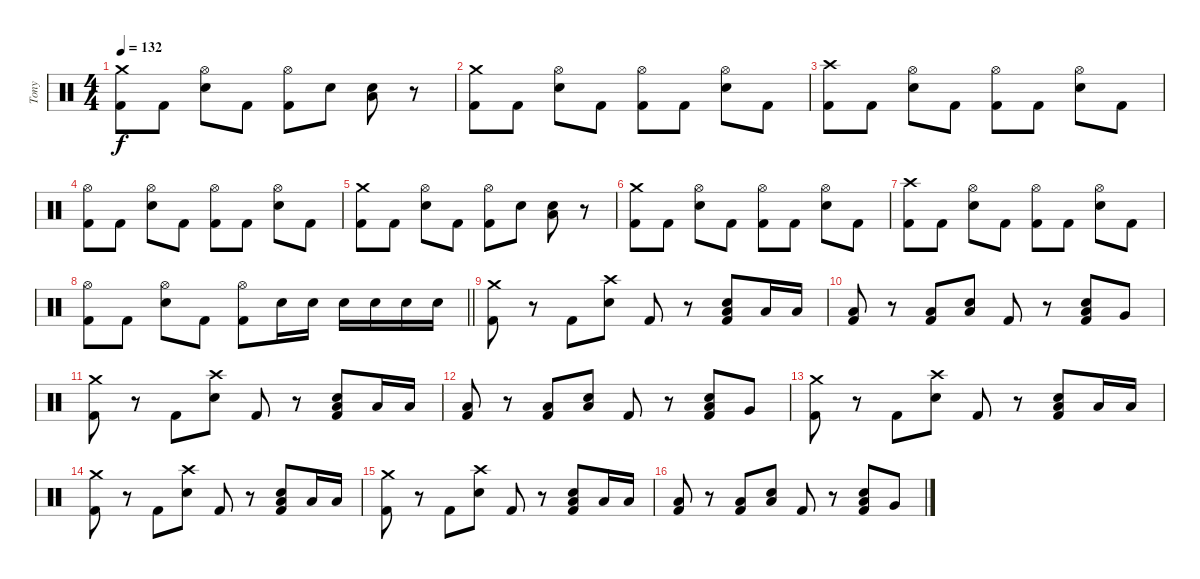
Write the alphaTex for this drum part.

\track ("Tony" "Tony") {instrument percussion}
\staff {score}
\articulation defaults
\ts (4 4)
\section ("" "")
\tempo 132
\clef neutral
\ks c
("Crash medium (hit)" "Kick (hit) 2").8{dy f} "Kick (hit) 2".8 ("Hi-Hat (open)" "Electric Snare (hit)").8 "Kick (hit) 2".8 ("Hi-Hat (open)" "Kick (hit) 2").8 "Electric Snare (hit)".8 ("Low Floor Tom (hit)" "Electric Snare (hit)").8 r.8 |
("Crash medium (hit)" "Kick (hit) 2").8 "Kick (hit) 2".8 ("Hi-Hat (open)" "Electric Snare (hit)").8 "Kick (hit) 2".8 ("Hi-Hat (open)" "Kick (hit) 2").8 "Kick (hit) 2".8 ("Hi-Hat (open)" "Electric Snare (hit)").8 "Kick (hit) 2".8 |
("Crash high (hit)" "Kick (hit) 2").8 "Kick (hit) 2".8 ("Hi-Hat (open)" "Electric Snare (hit)").8 "Kick (hit) 2".8 ("Hi-Hat (open)" "Kick (hit) 2").8 "Kick (hit) 2".8 ("Hi-Hat (open)" "Electric Snare (hit)").8 "Kick (hit) 2".8 |
("Hi-Hat (open)" "Kick (hit) 2").8 "Kick (hit) 2".8 ("Hi-Hat (open)" "Electric Snare (hit)").8 "Kick (hit) 2".8 ("Hi-Hat (open)" "Kick (hit) 2").8 "Kick (hit) 2".8 ("Hi-Hat (open)" "Electric Snare (hit)").8 "Kick (hit) 2".8 |
("Crash medium (hit)" "Kick (hit) 2").8 "Kick (hit) 2".8 ("Hi-Hat (open)" "Electric Snare (hit)").8 "Kick (hit) 2".8 ("Hi-Hat (open)" "Kick (hit) 2").8 "Electric Snare (hit)".8 ("Low Floor Tom (hit)" "Electric Snare (hit)").8 r.8 |
("Crash medium (hit)" "Kick (hit) 2").8 "Kick (hit) 2".8 ("Hi-Hat (open)" "Electric Snare (hit)").8 "Kick (hit) 2".8 ("Hi-Hat (open)" "Kick (hit) 2").8 "Kick (hit) 2".8 ("Hi-Hat (open)" "Electric Snare (hit)").8 "Kick (hit) 2".8 |
("Crash high (hit)" "Kick (hit) 2").8 "Kick (hit) 2".8 ("Hi-Hat (open)" "Electric Snare (hit)").8 "Kick (hit) 2".8 ("Hi-Hat (open)" "Kick (hit) 2").8 "Kick (hit) 2".8 ("Hi-Hat (open)" "Electric Snare (hit)").8 "Kick (hit) 2".8 |
\barLineRight lightlight
("Hi-Hat (open)" "Kick (hit) 2").8 "Kick (hit) 2".8 ("Hi-Hat (open)" "Electric Snare (hit)").8 "Kick (hit) 2".8 ("Hi-Hat (open)" "Kick (hit) 2").8 "Electric Snare (hit)".16 "Electric Snare (hit)".16 "Electric Snare (hit)".16 "Electric Snare (hit)".16 "Electric Snare (hit)".16 "Electric Snare (hit)".16 |
\section ("" "")
("Kick (hit) 2" "Crash medium (hit)").8 r.8 "Kick (hit) 2".8 ("Electric Snare (hit)" "Crash high (hit)").8 "Kick (hit) 2".8 r.8 ("Kick (hit) 2" "Electric Snare (hit)" "Low Floor Tom (hit)").8 "Low Tom (hit)".16 "Low Tom (hit)".16 |
("Kick (hit) 2" "Low Floor Tom (hit)").8 r.8 ("Kick (hit) 2" "Low Tom (hit)").8 ("Low Floor Tom (hit)" "Electric Snare (hit)").8 "Kick (hit) 2".8 r.8 ("Kick (hit) 2" "Low Floor Tom (hit)" "Electric Snare (hit)").8 "Very Low Tom (hit)".8 |
("Kick (hit) 2" "Crash medium (hit)").8 r.8 "Kick (hit) 2".8 ("Electric Snare (hit)" "Crash high (hit)").8 "Kick (hit) 2".8 r.8 ("Kick (hit) 2" "Electric Snare (hit)" "Low Floor Tom (hit)").8 "Low Tom (hit)".16 "Low Tom (hit)".16 |
("Kick (hit) 2" "Low Floor Tom (hit)").8 r.8 ("Kick (hit) 2" "Low Tom (hit)").8 ("Low Floor Tom (hit)" "Electric Snare (hit)").8 "Kick (hit) 2".8 r.8 ("Kick (hit) 2" "Low Floor Tom (hit)" "Electric Snare (hit)").8 "Very Low Tom (hit)".8 |
("Kick (hit) 2" "Crash medium (hit)").8 r.8 "Kick (hit) 2".8 ("Electric Snare (hit)" "Crash high (hit)").8 "Kick (hit) 2".8 r.8 ("Kick (hit) 2" "Electric Snare (hit)" "Low Floor Tom (hit)").8 "Low Tom (hit)".16 "Low Tom (hit)".16 |
("Kick (hit) 2" "Crash medium (hit)").8 r.8 "Kick (hit) 2".8 ("Electric Snare (hit)" "Crash high (hit)").8 "Kick (hit) 2".8 r.8 ("Kick (hit) 2" "Electric Snare (hit)" "Low Floor Tom (hit)").8 "Low Tom (hit)".16 "Low Tom (hit)".16 |
("Kick (hit) 2" "Crash medium (hit)").8 r.8 "Kick (hit) 2".8 ("Electric Snare (hit)" "Crash high (hit)").8 "Kick (hit) 2".8 r.8 ("Kick (hit) 2" "Electric Snare (hit)" "Low Floor Tom (hit)").8 "Low Tom (hit)".16 "Low Tom (hit)".16 |
("Kick (hit) 2" "Low Floor Tom (hit)").8 r.8 ("Kick (hit) 2" "Low Tom (hit)").8 ("Low Floor Tom (hit)" "Electric Snare (hit)").8 "Kick (hit) 2".8 r.8 ("Kick (hit) 2" "Low Floor Tom (hit)" "Electric Snare (hit)").8 "Very Low Tom (hit)".8
